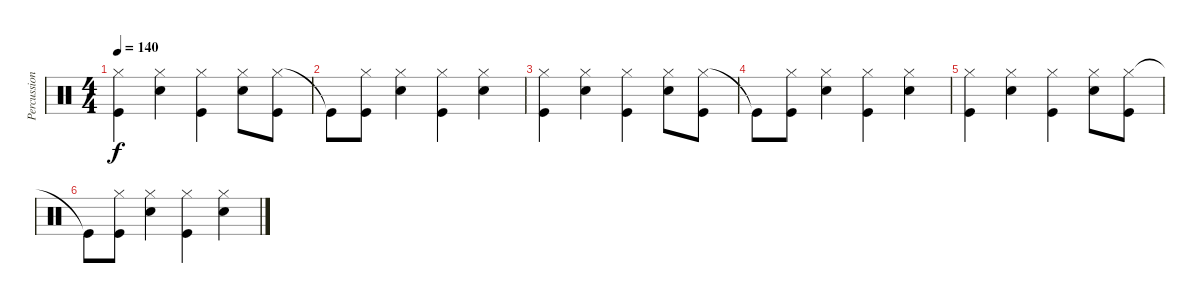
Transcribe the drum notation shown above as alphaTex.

\track ("Percussion" "Percussion") {instrument percussion}
\staff {score}
\articulation defaults
\ts (4 4)
\tempo 140
\clef neutral
\ks c
("Hi-Hat (closed)" "Kick (hit)").4{dy f} ("Hi-Hat (closed)" "Snare (hit) 2").4 ("Hi-Hat (closed)" "Kick (hit)").4 ("Hi-Hat (closed)" "Snare (hit) 2").8 ("Hi-Hat (closed)" "Kick (hit)").8 |
"Kick (hit)"{t}.8 ("Hi-Hat (closed)" "Kick (hit)").8 ("Hi-Hat (closed)" "Snare (hit) 2").4 ("Hi-Hat (closed)" "Kick (hit)").4 ("Hi-Hat (closed)" "Snare (hit) 2").4 |
("Hi-Hat (closed)" "Kick (hit)").4 ("Hi-Hat (closed)" "Snare (hit) 2").4 ("Hi-Hat (closed)" "Kick (hit)").4 ("Hi-Hat (closed)" "Snare (hit) 2").8 ("Hi-Hat (closed)" "Kick (hit)").8 |
"Kick (hit)"{t}.8 ("Hi-Hat (closed)" "Kick (hit)").8 ("Hi-Hat (closed)" "Snare (hit) 2").4 ("Hi-Hat (closed)" "Kick (hit)").4 ("Hi-Hat (closed)" "Snare (hit) 2").4 |
("Hi-Hat (closed)" "Kick (hit)").4 ("Hi-Hat (closed)" "Snare (hit) 2").4 ("Hi-Hat (closed)" "Kick (hit)").4 ("Hi-Hat (closed)" "Snare (hit) 2").8 ("Hi-Hat (closed)" "Kick (hit)").8 |
"Kick (hit)"{t}.8 ("Hi-Hat (closed)" "Kick (hit)").8 ("Hi-Hat (closed)" "Snare (hit) 2").4 ("Hi-Hat (closed)" "Kick (hit)").4 ("Hi-Hat (closed)" "Snare (hit) 2").4
